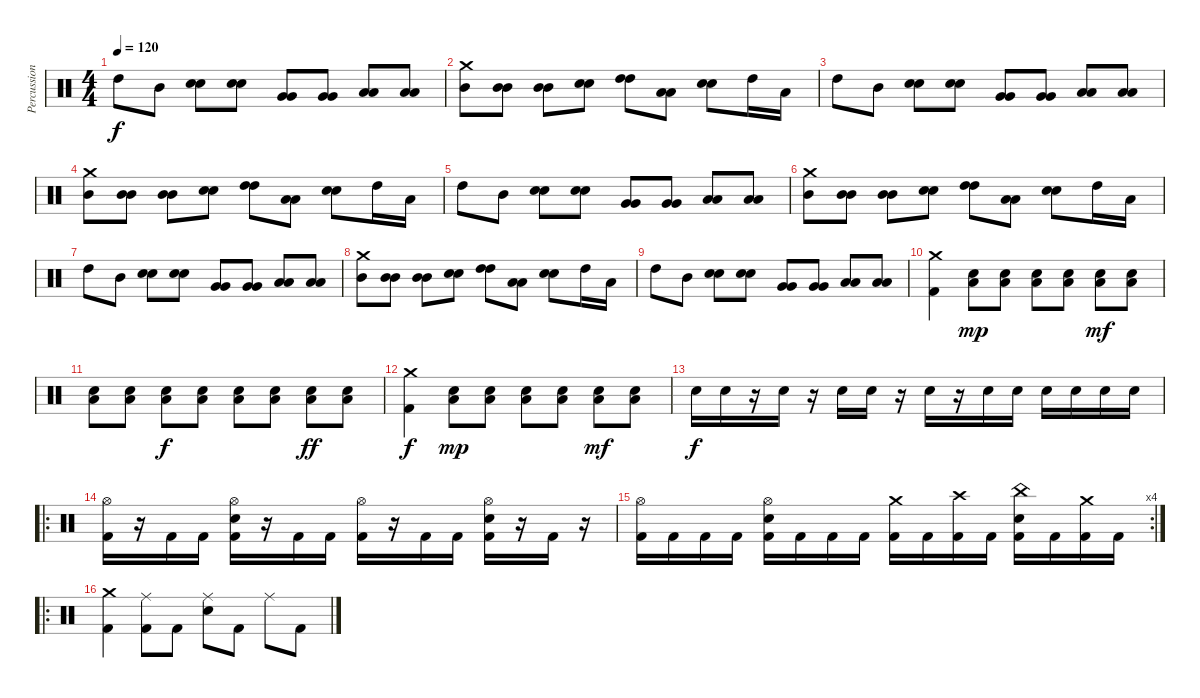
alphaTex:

\track ("Percussion" "Percussion") {instrument percussion}
\staff {score}
\articulation defaults
\ts (4 4)
\tempo 120
\clef neutral
\ks c "High Tom (hit)".8{dy f} "Mid Tom (hit)".8
("Electric Snare (hit)" "Electric Snare (hit)").8 ("Electric Snare (hit)" "Electric Snare (hit)").8 ("Very Low Tom (hit)" "Very Low Tom (hit)").8 ("Very Low Tom (hit)" "Very Low Tom (hit)").8 ("Low Floor Tom (hit)" "Low Floor Tom (hit)").8 ("Low Floor Tom (hit)" "Low Floor Tom (hit)").8 |
("Crash medium (hit)" "Mid Tom (hit)").8 ("Mid Tom (hit)" "Mid Tom (hit)").8 ("Mid Tom (hit)" "Mid Tom (hit)").8 ("Electric Snare (hit)" "Electric Snare (hit)").8 ("High Tom (hit)" "High Tom (hit)").8 ("Low Tom (hit)" "Low Tom (hit)").8 ("Electric Snare (hit)" "Electric Snare (hit)").8 "High Tom (hit)".16 "Low Tom (hit)".16 |
"High Tom (hit)".8 "Mid Tom (hit)".8 ("Electric Snare (hit)" "Electric Snare (hit)").8 ("Electric Snare (hit)" "Electric Snare (hit)").8 ("Very Low Tom (hit)" "Very Low Tom (hit)").8 ("Very Low Tom (hit)" "Very Low Tom (hit)").8 ("Low Floor Tom (hit)" "Low Floor Tom (hit)").8 ("Low Floor Tom (hit)" "Low Floor Tom (hit)").8 |
("Crash medium (hit)" "Mid Tom (hit)").8 ("Mid Tom (hit)" "Mid Tom (hit)").8 ("Mid Tom (hit)" "Mid Tom (hit)").8 ("Electric Snare (hit)" "Electric Snare (hit)").8 ("High Tom (hit)" "High Tom (hit)").8 ("Low Tom (hit)" "Low Tom (hit)").8 ("Electric Snare (hit)" "Electric Snare (hit)").8 "High Tom (hit)".16 "Low Tom (hit)".16 |
"High Tom (hit)".8 "Mid Tom (hit)".8 ("Electric Snare (hit)" "Electric Snare (hit)").8 ("Electric Snare (hit)" "Electric Snare (hit)").8 ("Very Low Tom (hit)" "Very Low Tom (hit)").8 ("Very Low Tom (hit)" "Very Low Tom (hit)").8 ("Low Floor Tom (hit)" "Low Floor Tom (hit)").8 ("Low Floor Tom (hit)" "Low Floor Tom (hit)").8 |
("Crash medium (hit)" "Mid Tom (hit)").8 ("Mid Tom (hit)" "Mid Tom (hit)").8 ("Mid Tom (hit)" "Mid Tom (hit)").8 ("Electric Snare (hit)" "Electric Snare (hit)").8 ("High Tom (hit)" "High Tom (hit)").8 ("Low Tom (hit)" "Low Tom (hit)").8 ("Electric Snare (hit)" "Electric Snare (hit)").8 "High Tom (hit)".16 "Low Tom (hit)".16 |
"High Tom (hit)".8 "Mid Tom (hit)".8 ("Electric Snare (hit)" "Electric Snare (hit)").8 ("Electric Snare (hit)" "Electric Snare (hit)").8 ("Very Low Tom (hit)" "Very Low Tom (hit)").8 ("Very Low Tom (hit)" "Very Low Tom (hit)").8 ("Low Floor Tom (hit)" "Low Floor Tom (hit)").8 ("Low Floor Tom (hit)" "Low Floor Tom (hit)").8 |
("Crash medium (hit)" "Mid Tom (hit)").8 ("Mid Tom (hit)" "Mid Tom (hit)").8 ("Mid Tom (hit)" "Mid Tom (hit)").8 ("Electric Snare (hit)" "Electric Snare (hit)").8 ("High Tom (hit)" "High Tom (hit)").8 ("Low Tom (hit)" "Low Tom (hit)").8 ("Electric Snare (hit)" "Electric Snare (hit)").8 "High Tom (hit)".16 "Low Tom (hit)".16 |
"High Tom (hit)".8 "Mid Tom (hit)".8 ("Electric Snare (hit)" "Electric Snare (hit)").8 ("Electric Snare (hit)" "Electric Snare (hit)").8 ("Very Low Tom (hit)" "Very Low Tom (hit)").8 ("Very Low Tom (hit)" "Very Low Tom (hit)").8 ("Low Floor Tom (hit)" "Low Floor Tom (hit)").8 ("Low Floor Tom (hit)" "Low Floor Tom (hit)").8 |
("Crash medium (hit)" "Kick (hit) 2").4 ("Low Tom (hit)" "Electric Snare (hit)").8{dy mp} ("Low Tom (hit)" "Electric Snare (hit)").8 ("Low Tom (hit)" "Electric Snare (hit)").8 ("Low Tom (hit)" "Electric Snare (hit)").8 ("Low Tom (hit)" "Electric Snare (hit)").8{dy mf} ("Low Tom (hit)" "Electric Snare (hit)").8 |
("Low Tom (hit)" "Electric Snare (hit)").8 ("Low Tom (hit)" "Electric Snare (hit)").8 ("Low Tom (hit)" "Electric Snare (hit)").8{dy f} ("Low Tom (hit)" "Electric Snare (hit)").8 ("Low Tom (hit)" "Electric Snare (hit)").8 ("Low Tom (hit)" "Electric Snare (hit)").8 ("Low Tom (hit)" "Electric Snare (hit)").8{dy ff} ("Low Tom (hit)" "Electric Snare (hit)").8 |
("Crash medium (hit)" "Kick (hit) 2").4{dy f} ("Low Tom (hit)" "Electric Snare (hit)").8{dy mp} ("Low Tom (hit)" "Electric Snare (hit)").8 ("Low Tom (hit)" "Electric Snare (hit)").8 ("Low Tom (hit)" "Electric Snare (hit)").8 ("Low Tom (hit)" "Electric Snare (hit)").8{dy mf} ("Low Tom (hit)" "Electric Snare (hit)").8 |
"Electric Snare (hit)".16{dy f} "Electric Snare (hit)".16 r.16 "Electric Snare (hit)".16 r.16 "Electric Snare (hit)".16 "Electric Snare (hit)".16 r.16 "Electric Snare (hit)".16 r.16 "Electric Snare (hit)".16 "Electric Snare (hit)".16 "Electric Snare (hit)".16 "Electric Snare (hit)".16 "Electric Snare (hit)".16 "Electric Snare (hit)".16 |
\ro
("Hi-Hat (open)" "Kick (hit) 2").16 r.16 "Kick (hit) 2".16 "Kick (hit) 2".16 ("Hi-Hat (open)" "Electric Snare (hit)" "Kick (hit) 2").16 r.16 "Kick (hit) 2".16 "Kick (hit) 2".16 ("Hi-Hat (open)" "Kick (hit) 2").16 r.16 "Kick (hit) 2".16 "Kick (hit) 2".16 ("Hi-Hat (open)" "Electric Snare (hit)" "Kick (hit) 2").16 r.16 "Kick (hit) 2".16 r.16 |
\rc 4
("Hi-Hat (open)" "Kick (hit) 2").16 "Kick (hit) 2".16 "Kick (hit) 2".16 "Kick (hit) 2".16 ("Hi-Hat (open)" "Electric Snare (hit)" "Kick (hit) 2").16 "Kick (hit) 2".16 "Kick (hit) 2".16 "Kick (hit) 2".16 ("Crash medium (hit)" "Kick (hit) 2").16 "Kick (hit) 2".16 ("Crash high (hit)" "Kick (hit) 2").16 "Kick (hit) 2".16 ("China (hit)" "Electric Snare (hit)" "Kick (hit) 2").16 "Kick (hit) 2".16 ("Crash medium (hit)" "Kick (hit) 2").16 "Kick (hit) 2".16 |
\ro
("Crash medium (hit)" "Kick (hit) 2").4 ("Ride (middle)" "Kick (hit) 2").8 "Kick (hit) 2".8 ("Ride (middle)" "Electric Snare (hit)").8 "Kick (hit) 2".8 "Ride (middle)".8 "Kick (hit) 2".8
